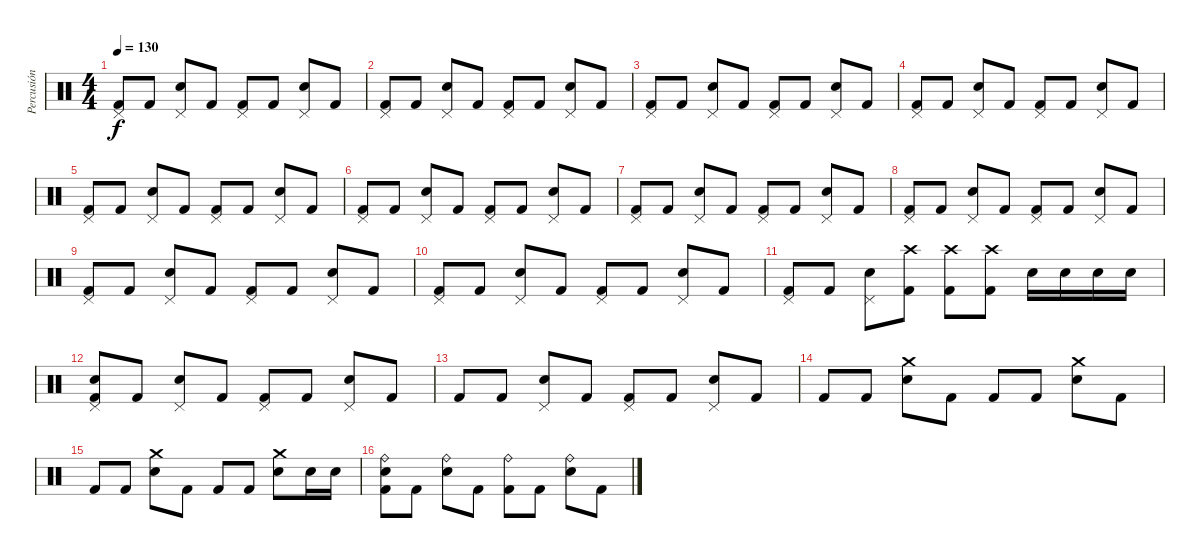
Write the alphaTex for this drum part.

\track ("Percusión" "Percusión") {instrument percussion}
\staff {score}
\articulation defaults
\ts (4 4)
\tempo 130
\clef neutral
\ks c
("Kick (hit) 2" "Pedal Hi-Hat (hit)").8{dy f} "Kick (hit) 2".8 ("Electric Snare (hit)" "Pedal Hi-Hat (hit)").8 "Kick (hit) 2".8 ("Kick (hit) 2" "Pedal Hi-Hat (hit)").8 "Kick (hit) 2".8 ("Electric Snare (hit)" "Pedal Hi-Hat (hit)").8 "Kick (hit) 2".8 |
("Kick (hit) 2" "Pedal Hi-Hat (hit)").8 "Kick (hit) 2".8 ("Electric Snare (hit)" "Pedal Hi-Hat (hit)").8 "Kick (hit) 2".8 ("Kick (hit) 2" "Pedal Hi-Hat (hit)").8 "Kick (hit) 2".8 ("Electric Snare (hit)" "Pedal Hi-Hat (hit)").8 "Kick (hit) 2".8 |
("Kick (hit) 2" "Pedal Hi-Hat (hit)").8 "Kick (hit) 2".8 ("Electric Snare (hit)" "Pedal Hi-Hat (hit)").8 "Kick (hit) 2".8 ("Kick (hit) 2" "Pedal Hi-Hat (hit)").8 "Kick (hit) 2".8 ("Electric Snare (hit)" "Pedal Hi-Hat (hit)").8 "Kick (hit) 2".8 |
("Kick (hit) 2" "Pedal Hi-Hat (hit)").8 "Kick (hit) 2".8 ("Electric Snare (hit)" "Pedal Hi-Hat (hit)").8 "Kick (hit) 2".8 ("Kick (hit) 2" "Pedal Hi-Hat (hit)").8 "Kick (hit) 2".8 ("Electric Snare (hit)" "Pedal Hi-Hat (hit)").8 "Kick (hit) 2".8 |
("Kick (hit) 2" "Pedal Hi-Hat (hit)").8 "Kick (hit) 2".8 ("Electric Snare (hit)" "Pedal Hi-Hat (hit)").8 "Kick (hit) 2".8 ("Kick (hit) 2" "Pedal Hi-Hat (hit)").8 "Kick (hit) 2".8 ("Electric Snare (hit)" "Pedal Hi-Hat (hit)").8 "Kick (hit) 2".8 |
("Kick (hit) 2" "Pedal Hi-Hat (hit)").8 "Kick (hit) 2".8 ("Electric Snare (hit)" "Pedal Hi-Hat (hit)").8 "Kick (hit) 2".8 ("Kick (hit) 2" "Pedal Hi-Hat (hit)").8 "Kick (hit) 2".8 ("Electric Snare (hit)" "Pedal Hi-Hat (hit)").8 "Kick (hit) 2".8 |
("Kick (hit) 2" "Pedal Hi-Hat (hit)").8 "Kick (hit) 2".8 ("Electric Snare (hit)" "Pedal Hi-Hat (hit)").8 "Kick (hit) 2".8 ("Kick (hit) 2" "Pedal Hi-Hat (hit)").8 "Kick (hit) 2".8 ("Electric Snare (hit)" "Pedal Hi-Hat (hit)").8 "Kick (hit) 2".8 |
("Kick (hit) 2" "Pedal Hi-Hat (hit)").8 "Kick (hit) 2".8 ("Electric Snare (hit)" "Pedal Hi-Hat (hit)").8 "Kick (hit) 2".8 ("Kick (hit) 2" "Pedal Hi-Hat (hit)").8 "Kick (hit) 2".8 ("Electric Snare (hit)" "Pedal Hi-Hat (hit)").8 "Kick (hit) 2".8 |
("Kick (hit) 2" "Pedal Hi-Hat (hit)").8 "Kick (hit) 2".8 ("Electric Snare (hit)" "Pedal Hi-Hat (hit)").8 "Kick (hit) 2".8 ("Kick (hit) 2" "Pedal Hi-Hat (hit)").8 "Kick (hit) 2".8 ("Electric Snare (hit)" "Pedal Hi-Hat (hit)").8 "Kick (hit) 2".8 |
("Kick (hit) 2" "Pedal Hi-Hat (hit)").8 "Kick (hit) 2".8 ("Electric Snare (hit)" "Pedal Hi-Hat (hit)").8 "Kick (hit) 2".8 ("Kick (hit) 2" "Pedal Hi-Hat (hit)").8 "Kick (hit) 2".8 ("Electric Snare (hit)" "Pedal Hi-Hat (hit)").8 "Kick (hit) 2".8 |
("Kick (hit) 2" "Pedal Hi-Hat (hit)").8 "Kick (hit) 2".8 ("Electric Snare (hit)" "Pedal Hi-Hat (hit)").8 ("Kick (hit) 2" "Crash high (hit)").8 ("Kick (hit) 2" "Crash high (hit)").8 ("Kick (hit) 2" "Crash high (hit)").8 "Electric Snare (hit)".16 "Electric Snare (hit)".16 "Electric Snare (hit)".16 "Electric Snare (hit)".16 |
("Kick (hit) 2" "Electric Snare (hit)" "Pedal Hi-Hat (hit)").8 "Kick (hit) 2".8 ("Electric Snare (hit)" "Pedal Hi-Hat (hit)").8 "Kick (hit) 2".8 ("Kick (hit) 2" "Pedal Hi-Hat (hit)").8 "Kick (hit) 2".8 ("Electric Snare (hit)" "Pedal Hi-Hat (hit)").8 "Kick (hit) 2".8 |
"Kick (hit) 2".8 "Kick (hit) 2".8 ("Electric Snare (hit)" "Pedal Hi-Hat (hit)").8 "Kick (hit) 2".8 ("Kick (hit) 2" "Pedal Hi-Hat (hit)").8 "Kick (hit) 2".8 ("Electric Snare (hit)" "Pedal Hi-Hat (hit)").8 "Kick (hit) 2".8 |
"Kick (hit) 2".8 "Kick (hit) 2".8 ("Electric Snare (hit)" "Crash medium (hit)").8 "Kick (hit) 2".8 "Kick (hit) 2".8 "Kick (hit) 2".8 ("Electric Snare (hit)" "Crash medium (hit)").8 "Kick (hit) 2".8 |
"Kick (hit) 2".8 "Kick (hit) 2".8 ("Electric Snare (hit)" "Crash medium (hit)").8 "Kick (hit) 2".8 "Kick (hit) 2".8 "Kick (hit) 2".8 ("Electric Snare (hit)" "Crash medium (hit)").8 "Electric Snare (hit)".16 "Electric Snare (hit)".16 |
("Kick (hit) 2" "Electric Snare (hit)" "Ride (bell)").8 "Kick (hit) 2".8 ("Electric Snare (hit)" "Ride (bell)").8 "Kick (hit) 2".8 ("Kick (hit) 2" "Ride (bell)").8 "Kick (hit) 2".8 ("Electric Snare (hit)" "Ride (bell)").8 "Kick (hit) 2".8
